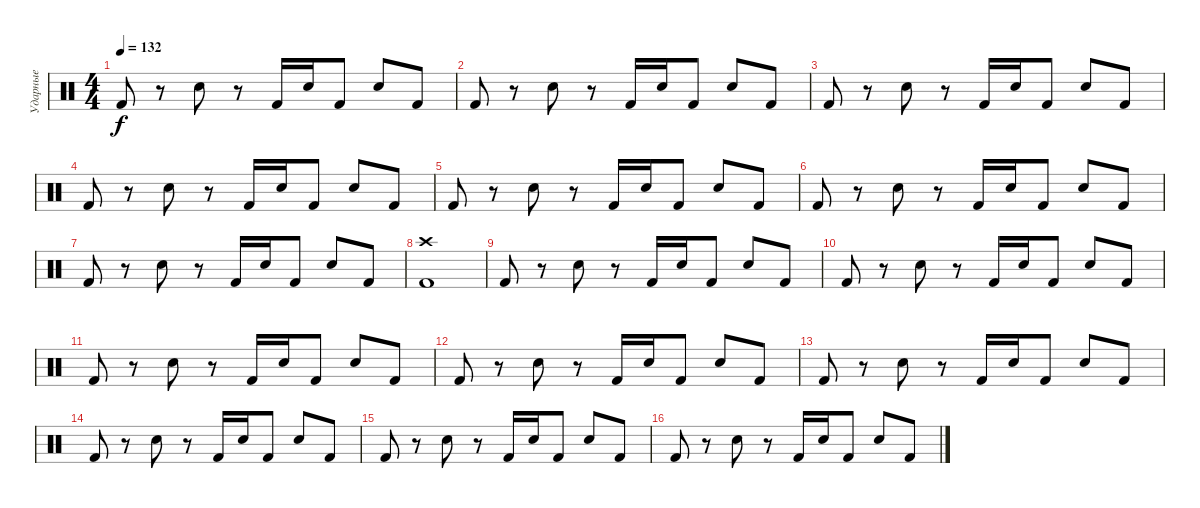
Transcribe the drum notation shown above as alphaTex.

\track ("Ударные" "Ударные") {instrument percussion}
\staff {score}
\articulation defaults
\ts (4 4)
\tempo 132
\clef neutral
\ks c "Kick (hit) 2".8{dy f}
r.8 "Electric Snare (hit)".8 r.8 "Kick (hit) 2".16 "Electric Snare (hit)".16 "Kick (hit) 2".8 "Electric Snare (hit)".8 "Kick (hit) 2".8 |
"Kick (hit) 2".8 r.8 "Electric Snare (hit)".8 r.8 "Kick (hit) 2".16 "Electric Snare (hit)".16 "Kick (hit) 2".8 "Electric Snare (hit)".8 "Kick (hit) 2".8 |
"Kick (hit) 2".8 r.8 "Electric Snare (hit)".8 r.8 "Kick (hit) 2".16 "Electric Snare (hit)".16 "Kick (hit) 2".8 "Electric Snare (hit)".8 "Kick (hit) 2".8 |
"Kick (hit) 2".8 r.8 "Electric Snare (hit)".8 r.8 "Kick (hit) 2".16 "Electric Snare (hit)".16 "Kick (hit) 2".8 "Electric Snare (hit)".8 "Kick (hit) 2".8 |
"Kick (hit) 2".8 r.8 "Electric Snare (hit)".8 r.8 "Kick (hit) 2".16 "Electric Snare (hit)".16 "Kick (hit) 2".8 "Electric Snare (hit)".8 "Kick (hit) 2".8 |
"Kick (hit) 2".8 r.8 "Electric Snare (hit)".8 r.8 "Kick (hit) 2".16 "Electric Snare (hit)".16 "Kick (hit) 2".8 "Electric Snare (hit)".8 "Kick (hit) 2".8 |
"Kick (hit) 2".8 r.8 "Electric Snare (hit)".8 r.8 "Kick (hit) 2".16 "Electric Snare (hit)".16 "Kick (hit) 2".8 "Electric Snare (hit)".8 "Kick (hit) 2".8 |
("Crash high (hit)" "Kick (hit) 2").1 |
"Kick (hit) 2".8 r.8 "Electric Snare (hit)".8 r.8 "Kick (hit) 2".16 "Electric Snare (hit)".16 "Kick (hit) 2".8 "Electric Snare (hit)".8 "Kick (hit) 2".8 |
"Kick (hit) 2".8 r.8 "Electric Snare (hit)".8 r.8 "Kick (hit) 2".16 "Electric Snare (hit)".16 "Kick (hit) 2".8 "Electric Snare (hit)".8 "Kick (hit) 2".8 |
"Kick (hit) 2".8 r.8 "Electric Snare (hit)".8 r.8 "Kick (hit) 2".16 "Electric Snare (hit)".16 "Kick (hit) 2".8 "Electric Snare (hit)".8 "Kick (hit) 2".8 |
"Kick (hit) 2".8 r.8 "Electric Snare (hit)".8 r.8 "Kick (hit) 2".16 "Electric Snare (hit)".16 "Kick (hit) 2".8 "Electric Snare (hit)".8 "Kick (hit) 2".8 |
"Kick (hit) 2".8 r.8 "Electric Snare (hit)".8 r.8 "Kick (hit) 2".16 "Electric Snare (hit)".16 "Kick (hit) 2".8 "Electric Snare (hit)".8 "Kick (hit) 2".8 |
"Kick (hit) 2".8 r.8 "Electric Snare (hit)".8 r.8 "Kick (hit) 2".16 "Electric Snare (hit)".16 "Kick (hit) 2".8 "Electric Snare (hit)".8 "Kick (hit) 2".8 |
"Kick (hit) 2".8 r.8 "Electric Snare (hit)".8 r.8 "Kick (hit) 2".16 "Electric Snare (hit)".16 "Kick (hit) 2".8 "Electric Snare (hit)".8 "Kick (hit) 2".8 |
"Kick (hit) 2".8 r.8 "Electric Snare (hit)".8 r.8 "Kick (hit) 2".16 "Electric Snare (hit)".16 "Kick (hit) 2".8 "Electric Snare (hit)".8 "Kick (hit) 2".8
